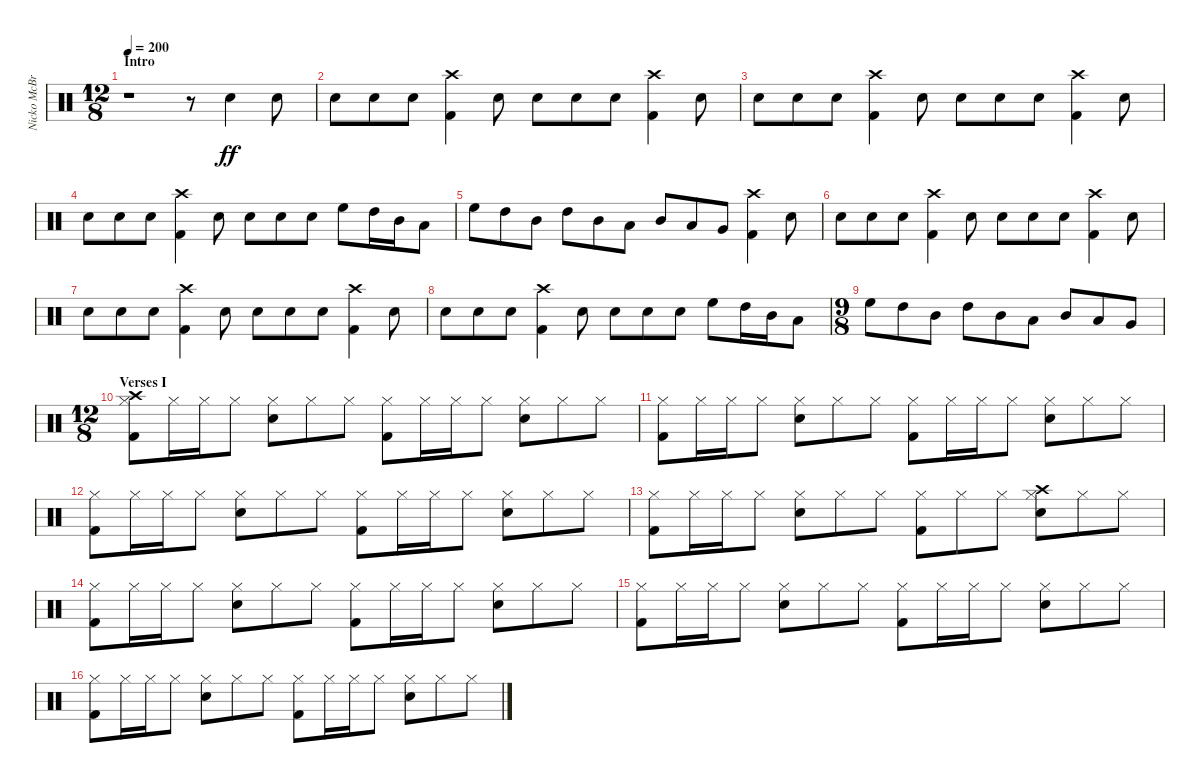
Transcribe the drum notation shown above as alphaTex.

\track ("Nicko McBrain" "Nicko McBr") {instrument percussion}
\staff {score}
\articulation defaults
\ts (12 8)
\section ("" "Intro")
\tempo 200
\clef neutral
\ks c
r.1{dy ff} r.8 "Snare (hit) 2".4 "Snare (hit) 2".8 |
"Snare (hit) 2".8 "Snare (hit) 2".8 "Snare (hit) 2".8 ("Kick (hit) 2" "Crash high (hit)").4 "Snare (hit) 2".8 "Snare (hit) 2".8 "Snare (hit) 2".8 "Snare (hit) 2".8 ("Kick (hit) 2" "Crash high (hit)").4 "Snare (hit) 2".8 |
"Snare (hit) 2".8 "Snare (hit) 2".8 "Snare (hit) 2".8 ("Kick (hit) 2" "Crash high (hit)").4 "Snare (hit) 2".8 "Snare (hit) 2".8 "Snare (hit) 2".8 "Snare (hit) 2".8 ("Kick (hit) 2" "Crash high (hit)").4 "Snare (hit) 2".8 |
"Snare (hit) 2".8 "Snare (hit) 2".8 "Snare (hit) 2".8 ("Kick (hit) 2" "Crash high (hit)").4 "Snare (hit) 2".8 "Snare (hit) 2".8 "Snare (hit) 2".8 "Snare (hit) 2".8 "High Floor Tom (hit)".8 "High Tom (hit)".16 "Mid Tom (hit)".16 "Low Tom (hit)".8 |
"High Floor Tom (hit)".8 "High Tom (hit)".8 "Mid Tom (hit)".8 "High Tom (hit)".8 "Mid Tom (hit)".8 "Low Tom (hit)".8 "Mid Tom (hit)".8 "Low Tom (hit)".8 "Very Low Tom (hit)".8 ("Kick (hit) 2" "Crash high (hit)").4 "Snare (hit) 2".8 |
"Snare (hit) 2".8 "Snare (hit) 2".8 "Snare (hit) 2".8 ("Kick (hit) 2" "Crash high (hit)").4 "Snare (hit) 2".8 "Snare (hit) 2".8 "Snare (hit) 2".8 "Snare (hit) 2".8 ("Kick (hit) 2" "Crash high (hit)").4 "Snare (hit) 2".8 |
"Snare (hit) 2".8 "Snare (hit) 2".8 "Snare (hit) 2".8 ("Kick (hit) 2" "Crash high (hit)").4 "Snare (hit) 2".8 "Snare (hit) 2".8 "Snare (hit) 2".8 "Snare (hit) 2".8 ("Kick (hit) 2" "Crash high (hit)").4 "Snare (hit) 2".8 |
"Snare (hit) 2".8 "Snare (hit) 2".8 "Snare (hit) 2".8 ("Kick (hit) 2" "Crash high (hit)").4 "Snare (hit) 2".8 "Snare (hit) 2".8 "Snare (hit) 2".8 "Snare (hit) 2".8 "High Floor Tom (hit)".8 "High Tom (hit)".16 "Mid Tom (hit)".16 "Low Tom (hit)".8 |
\ts (9 8)
"High Floor Tom (hit)".8 "High Tom (hit)".8 "Mid Tom (hit)".8 "High Tom (hit)".8 "Mid Tom (hit)".8 "Low Tom (hit)".8 "Mid Tom (hit)".8 "Low Tom (hit)".8 "Very Low Tom (hit)".8 |
\ts (12 8)
\section ("" "Verses I")
("Kick (hit) 2" "Hi-Hat (closed)" "Crash high (hit)").8 "Hi-Hat (closed)".16 "Hi-Hat (closed)".16 "Hi-Hat (closed)".8 ("Snare (hit) 2" "Hi-Hat (closed)").8 "Hi-Hat (closed)".8 "Hi-Hat (closed)".8 ("Kick (hit) 2" "Hi-Hat (closed)").8 "Hi-Hat (closed)".16 "Hi-Hat (closed)".16 "Hi-Hat (closed)".8 ("Snare (hit) 2" "Hi-Hat (closed)").8 "Hi-Hat (closed)".8 "Hi-Hat (closed)".8 |
("Kick (hit) 2" "Hi-Hat (closed)").8 "Hi-Hat (closed)".16 "Hi-Hat (closed)".16 "Hi-Hat (closed)".8 ("Snare (hit) 2" "Hi-Hat (closed)").8 "Hi-Hat (closed)".8 "Hi-Hat (closed)".8 ("Kick (hit) 2" "Hi-Hat (closed)").8 "Hi-Hat (closed)".16 "Hi-Hat (closed)".16 "Hi-Hat (closed)".8 ("Snare (hit) 2" "Hi-Hat (closed)").8 "Hi-Hat (closed)".8 "Hi-Hat (closed)".8 |
("Kick (hit) 2" "Hi-Hat (closed)").8 "Hi-Hat (closed)".16 "Hi-Hat (closed)".16 "Hi-Hat (closed)".8 ("Snare (hit) 2" "Hi-Hat (closed)").8 "Hi-Hat (closed)".8 "Hi-Hat (closed)".8 ("Kick (hit) 2" "Hi-Hat (closed)").8 "Hi-Hat (closed)".16 "Hi-Hat (closed)".16 "Hi-Hat (closed)".8 ("Snare (hit) 2" "Hi-Hat (closed)").8 "Hi-Hat (closed)".8 "Hi-Hat (closed)".8 |
("Kick (hit) 2" "Hi-Hat (closed)").8 "Hi-Hat (closed)".16 "Hi-Hat (closed)".16 "Hi-Hat (closed)".8 ("Snare (hit) 2" "Hi-Hat (closed)").8 "Hi-Hat (closed)".8 "Hi-Hat (closed)".8 ("Kick (hit) 2" "Hi-Hat (closed)").8 "Hi-Hat (closed)".8 "Hi-Hat (closed)".8 ("Snare (hit) 2" "Hi-Hat (closed)" "Crash high (hit)").8 "Hi-Hat (closed)".8 "Hi-Hat (closed)".8 |
("Kick (hit) 2" "Hi-Hat (closed)").8 "Hi-Hat (closed)".16 "Hi-Hat (closed)".16 "Hi-Hat (closed)".8 ("Snare (hit) 2" "Hi-Hat (closed)").8 "Hi-Hat (closed)".8 "Hi-Hat (closed)".8 ("Kick (hit) 2" "Hi-Hat (closed)").8 "Hi-Hat (closed)".16 "Hi-Hat (closed)".16 "Hi-Hat (closed)".8 ("Snare (hit) 2" "Hi-Hat (closed)").8 "Hi-Hat (closed)".8 "Hi-Hat (closed)".8 |
("Kick (hit) 2" "Hi-Hat (closed)").8 "Hi-Hat (closed)".16 "Hi-Hat (closed)".16 "Hi-Hat (closed)".8 ("Snare (hit) 2" "Hi-Hat (closed)").8 "Hi-Hat (closed)".8 "Hi-Hat (closed)".8 ("Kick (hit) 2" "Hi-Hat (closed)").8 "Hi-Hat (closed)".16 "Hi-Hat (closed)".16 "Hi-Hat (closed)".8 ("Snare (hit) 2" "Hi-Hat (closed)").8 "Hi-Hat (closed)".8 "Hi-Hat (closed)".8 |
("Kick (hit) 2" "Hi-Hat (closed)").8 "Hi-Hat (closed)".16 "Hi-Hat (closed)".16 "Hi-Hat (closed)".8 ("Snare (hit) 2" "Hi-Hat (closed)").8 "Hi-Hat (closed)".8 "Hi-Hat (closed)".8 ("Kick (hit) 2" "Hi-Hat (closed)").8 "Hi-Hat (closed)".16 "Hi-Hat (closed)".16 "Hi-Hat (closed)".8 ("Snare (hit) 2" "Hi-Hat (closed)").8 "Hi-Hat (closed)".8 "Hi-Hat (closed)".8
